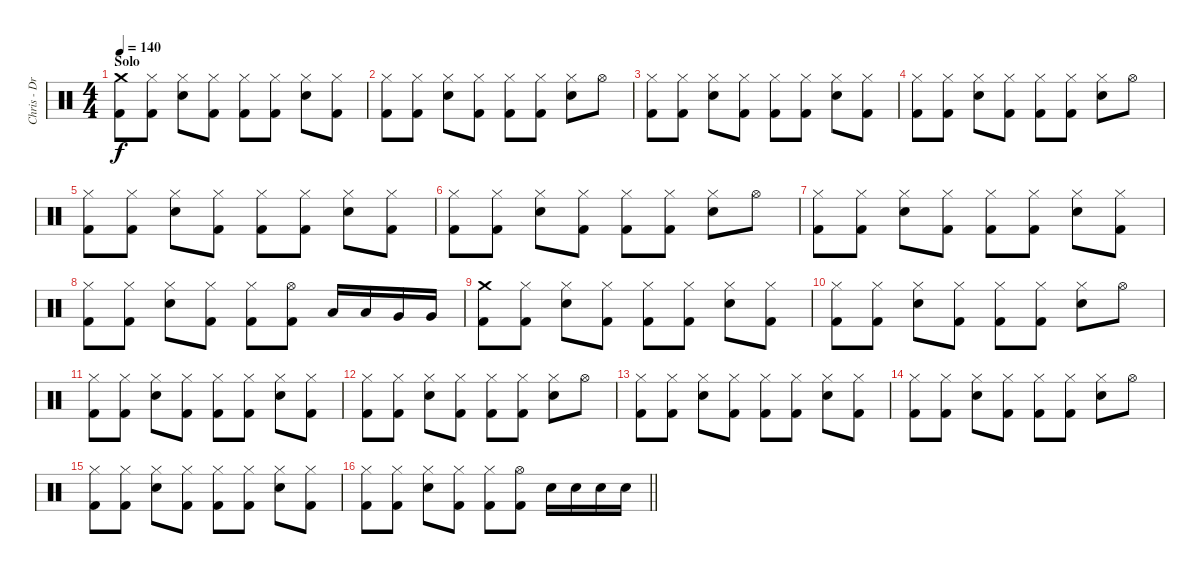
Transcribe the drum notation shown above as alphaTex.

\track ("Chris - Drums" "Chris - Dr") {instrument percussion}
\staff {score}
\articulation defaults
\ts (4 4)
\section ("" "Solo")
\tempo 140
\clef neutral
\ks c
("Crash medium (hit)" "Kick (hit) 2").8{dy f} ("Hi-Hat (closed)" "Kick (hit) 2").8 ("Hi-Hat (closed)" "Electric Snare (hit)").8 ("Hi-Hat (closed)" "Kick (hit) 2").8 ("Hi-Hat (closed)" "Kick (hit) 2").8 ("Hi-Hat (closed)" "Kick (hit) 2").8 ("Hi-Hat (closed)" "Electric Snare (hit)").8 ("Hi-Hat (closed)" "Kick (hit) 2").8 |
("Hi-Hat (closed)" "Kick (hit) 2").8 ("Hi-Hat (closed)" "Kick (hit) 2").8 ("Hi-Hat (closed)" "Electric Snare (hit)").8 ("Hi-Hat (closed)" "Kick (hit) 2").8 ("Hi-Hat (closed)" "Kick (hit) 2").8 ("Hi-Hat (closed)" "Kick (hit) 2").8 ("Hi-Hat (closed)" "Electric Snare (hit)").8 "Hi-Hat (open)".8 |
("Hi-Hat (closed)" "Kick (hit) 2").8 ("Hi-Hat (closed)" "Kick (hit) 2").8 ("Hi-Hat (closed)" "Electric Snare (hit)").8 ("Hi-Hat (closed)" "Kick (hit) 2").8 ("Hi-Hat (closed)" "Kick (hit) 2").8 ("Hi-Hat (closed)" "Kick (hit) 2").8 ("Hi-Hat (closed)" "Electric Snare (hit)").8 ("Hi-Hat (closed)" "Kick (hit) 2").8 |
("Hi-Hat (closed)" "Kick (hit) 2").8 ("Hi-Hat (closed)" "Kick (hit) 2").8 ("Hi-Hat (closed)" "Electric Snare (hit)").8 ("Hi-Hat (closed)" "Kick (hit) 2").8 ("Hi-Hat (closed)" "Kick (hit) 2").8 ("Hi-Hat (closed)" "Kick (hit) 2").8 ("Hi-Hat (closed)" "Electric Snare (hit)").8 "Hi-Hat (open)".8 |
("Hi-Hat (closed)" "Kick (hit) 2").8 ("Hi-Hat (closed)" "Kick (hit) 2").8 ("Hi-Hat (closed)" "Electric Snare (hit)").8 ("Hi-Hat (closed)" "Kick (hit) 2").8 ("Hi-Hat (closed)" "Kick (hit) 2").8 ("Hi-Hat (closed)" "Kick (hit) 2").8 ("Hi-Hat (closed)" "Electric Snare (hit)").8 ("Hi-Hat (closed)" "Kick (hit) 2").8 |
("Hi-Hat (closed)" "Kick (hit) 2").8 ("Hi-Hat (closed)" "Kick (hit) 2").8 ("Hi-Hat (closed)" "Electric Snare (hit)").8 ("Hi-Hat (closed)" "Kick (hit) 2").8 ("Hi-Hat (closed)" "Kick (hit) 2").8 ("Hi-Hat (closed)" "Kick (hit) 2").8 ("Hi-Hat (closed)" "Electric Snare (hit)").8 "Hi-Hat (open)".8 |
("Hi-Hat (closed)" "Kick (hit) 2").8 ("Hi-Hat (closed)" "Kick (hit) 2").8 ("Hi-Hat (closed)" "Electric Snare (hit)").8 ("Hi-Hat (closed)" "Kick (hit) 2").8 ("Hi-Hat (closed)" "Kick (hit) 2").8 ("Hi-Hat (closed)" "Kick (hit) 2").8 ("Hi-Hat (closed)" "Electric Snare (hit)").8 ("Hi-Hat (closed)" "Kick (hit) 2").8 |
("Hi-Hat (closed)" "Kick (hit) 2").8 ("Hi-Hat (closed)" "Kick (hit) 2").8 ("Hi-Hat (closed)" "Electric Snare (hit)").8 ("Hi-Hat (closed)" "Kick (hit) 2").8 ("Hi-Hat (closed)" "Kick (hit) 2").8 ("Hi-Hat (open)" "Kick (hit) 2").8 "Low Tom (hit)".16 "Low Tom (hit)".16 "Very Low Tom (hit)".16 "Very Low Tom (hit)".16 |
("Crash medium (hit)" "Kick (hit) 2").8 ("Hi-Hat (closed)" "Kick (hit) 2").8 ("Hi-Hat (closed)" "Electric Snare (hit)").8 ("Hi-Hat (closed)" "Kick (hit) 2").8 ("Hi-Hat (closed)" "Kick (hit) 2").8 ("Hi-Hat (closed)" "Kick (hit) 2").8 ("Hi-Hat (closed)" "Electric Snare (hit)").8 ("Hi-Hat (closed)" "Kick (hit) 2").8 |
("Hi-Hat (closed)" "Kick (hit) 2").8 ("Hi-Hat (closed)" "Kick (hit) 2").8 ("Hi-Hat (closed)" "Electric Snare (hit)").8 ("Hi-Hat (closed)" "Kick (hit) 2").8 ("Hi-Hat (closed)" "Kick (hit) 2").8 ("Hi-Hat (closed)" "Kick (hit) 2").8 ("Hi-Hat (closed)" "Electric Snare (hit)").8 "Hi-Hat (open)".8 |
("Hi-Hat (closed)" "Kick (hit) 2").8 ("Hi-Hat (closed)" "Kick (hit) 2").8 ("Hi-Hat (closed)" "Electric Snare (hit)").8 ("Hi-Hat (closed)" "Kick (hit) 2").8 ("Hi-Hat (closed)" "Kick (hit) 2").8 ("Hi-Hat (closed)" "Kick (hit) 2").8 ("Hi-Hat (closed)" "Electric Snare (hit)").8 ("Hi-Hat (closed)" "Kick (hit) 2").8 |
("Hi-Hat (closed)" "Kick (hit) 2").8 ("Hi-Hat (closed)" "Kick (hit) 2").8 ("Hi-Hat (closed)" "Electric Snare (hit)").8 ("Hi-Hat (closed)" "Kick (hit) 2").8 ("Hi-Hat (closed)" "Kick (hit) 2").8 ("Hi-Hat (closed)" "Kick (hit) 2").8 ("Hi-Hat (closed)" "Electric Snare (hit)").8 "Hi-Hat (open)".8 |
("Hi-Hat (closed)" "Kick (hit) 2").8 ("Hi-Hat (closed)" "Kick (hit) 2").8 ("Hi-Hat (closed)" "Electric Snare (hit)").8 ("Hi-Hat (closed)" "Kick (hit) 2").8 ("Hi-Hat (closed)" "Kick (hit) 2").8 ("Hi-Hat (closed)" "Kick (hit) 2").8 ("Hi-Hat (closed)" "Electric Snare (hit)").8 ("Hi-Hat (closed)" "Kick (hit) 2").8 |
("Hi-Hat (closed)" "Kick (hit) 2").8 ("Hi-Hat (closed)" "Kick (hit) 2").8 ("Hi-Hat (closed)" "Electric Snare (hit)").8 ("Hi-Hat (closed)" "Kick (hit) 2").8 ("Hi-Hat (closed)" "Kick (hit) 2").8 ("Hi-Hat (closed)" "Kick (hit) 2").8 ("Hi-Hat (closed)" "Electric Snare (hit)").8 "Hi-Hat (open)".8 |
("Hi-Hat (closed)" "Kick (hit) 2").8 ("Hi-Hat (closed)" "Kick (hit) 2").8 ("Hi-Hat (closed)" "Electric Snare (hit)").8 ("Hi-Hat (closed)" "Kick (hit) 2").8 ("Hi-Hat (closed)" "Kick (hit) 2").8 ("Hi-Hat (closed)" "Kick (hit) 2").8 ("Hi-Hat (closed)" "Electric Snare (hit)").8 ("Hi-Hat (closed)" "Kick (hit) 2").8 |
\barLineRight lightlight
("Hi-Hat (closed)" "Kick (hit) 2").8 ("Hi-Hat (closed)" "Kick (hit) 2").8 ("Hi-Hat (closed)" "Electric Snare (hit)").8 ("Hi-Hat (closed)" "Kick (hit) 2").8 ("Hi-Hat (closed)" "Kick (hit) 2").8 ("Hi-Hat (open)" "Kick (hit) 2").8 "Electric Snare (hit)".16 "Electric Snare (hit)".16 "Electric Snare (hit)".16 "Electric Snare (hit)".16
